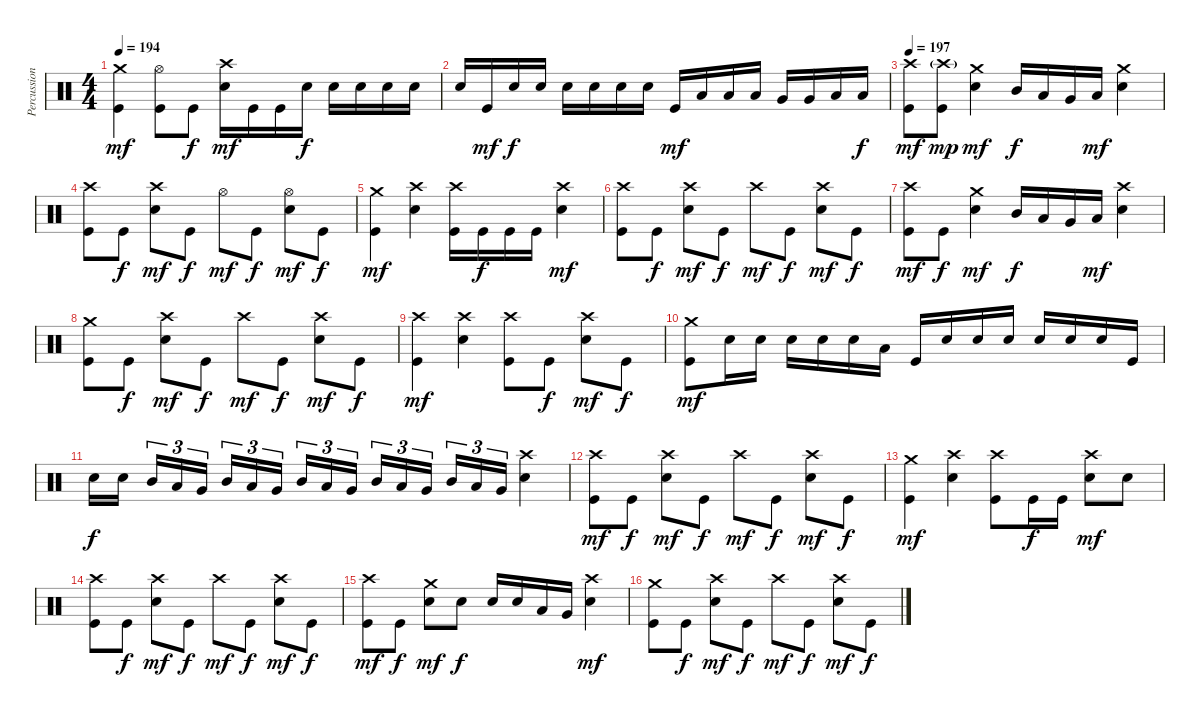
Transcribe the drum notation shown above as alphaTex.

\track ("Percussion" "Percussion") {instrument percussion}
\staff {score}
\articulation defaults
\ts (4 4)
\tempo 194
\clef neutral
\ks c
("Crash medium (hit)" "Kick (hit)").4{dy mf} ("Hi-Hat (open)" "Kick (hit)").8 "Kick (hit)".8{dy f} ("Crash high (hit)" "Electric Snare (hit)").16{dy mf} "Kick (hit)".16 "Kick (hit)".16 "Electric Snare (hit)".16{dy f} "Electric Snare (hit)".16 "Electric Snare (hit)".16 "Electric Snare (hit)".16 "Electric Snare (hit)".16 |
"Electric Snare (hit)".16 "Kick (hit)".16{dy mf} "Electric Snare (hit)".16{dy f} "Electric Snare (hit)".16 "Electric Snare (hit)".16 "Electric Snare (hit)".16 "Electric Snare (hit)".16 "Electric Snare (hit)".16 "Kick (hit)".16{dy mf} "Low Tom (hit)".16 "Low Tom (hit)".16 "Low Tom (hit)".16 "Very Low Tom (hit)".16 "Very Low Tom (hit)".16 "Low Floor Tom (hit)".16 "Low Floor Tom (hit)".16{dy f} |
\tempo 197
("Crash high (hit)" "Kick (hit)").8{dy mf} ("Crash high (hit)"{g} "Kick (hit)").8{dy mp} ("Crash medium (hit)" "Electric Snare (hit)").4{dy mf} "Mid Tom (hit)".16{dy f} "Low Tom (hit)".16 "Very Low Tom (hit)".16 "Low Floor Tom (hit)".16{dy mf} ("Crash medium (hit)" "Electric Snare (hit)").4 |
("Crash high (hit)" "Kick (hit)").8 "Kick (hit)".8{dy f} ("Crash high (hit)" "Electric Snare (hit)").8{dy mf} "Kick (hit)".8{dy f} "Hi-Hat (open)".8{dy mf} "Kick (hit)".8{dy f} ("Hi-Hat (open)" "Electric Snare (hit)").8{dy mf} "Kick (hit)".8{dy f} |
("Crash medium (hit)" "Kick (hit)").4{dy mf} ("Crash high (hit)" "Electric Snare (hit)").4 ("Crash high (hit)" "Kick (hit)").16 "Kick (hit)".16{dy f} "Kick (hit)".16 "Kick (hit)".16 ("Crash high (hit)" "Electric Snare (hit)").4{dy mf} |
("Crash high (hit)" "Kick (hit)").8 "Kick (hit)".8{dy f} ("Crash high (hit)" "Electric Snare (hit)").8{dy mf} "Kick (hit)".8{dy f} "Crash high (hit)".8{dy mf} "Kick (hit)".8{dy f} ("Crash high (hit)" "Electric Snare (hit)").8{dy mf} "Kick (hit)".8{dy f} |
("Crash high (hit)" "Kick (hit)").8{dy mf} "Kick (hit)".8{dy f} ("Crash medium (hit)" "Electric Snare (hit)").4{dy mf} "Mid Tom (hit)".16{dy f} "Low Tom (hit)".16 "Very Low Tom (hit)".16 "Low Floor Tom (hit)".16{dy mf} ("Crash high (hit)" "Electric Snare (hit)").4 |
("Crash medium (hit)" "Kick (hit)").8 "Kick (hit)".8{dy f} ("Crash high (hit)" "Electric Snare (hit)").8{dy mf} "Kick (hit)".8{dy f} "Crash high (hit)".8{dy mf} "Kick (hit)".8{dy f} ("Crash high (hit)" "Electric Snare (hit)").8{dy mf} "Kick (hit)".8{dy f} |
("Crash high (hit)" "Kick (hit)").4{dy mf} ("Crash high (hit)" "Electric Snare (hit)").4 ("Crash high (hit)" "Kick (hit)").8 "Kick (hit)".8{dy f} ("Crash high (hit)" "Electric Snare (hit)").8{dy mf} "Kick (hit)".8{dy f} |
("Crash medium (hit)" "Kick (hit)").8{dy mf} "Electric Snare (hit)".16 "Electric Snare (hit)".16 "Electric Snare (hit)".16 "Electric Snare (hit)".16 "Electric Snare (hit)".16 "Low Tom (hit)".16 "Kick (hit)".16 "Electric Snare (hit)".16 "Electric Snare (hit)".16 "Electric Snare (hit)".16 "Electric Snare (hit)".16 "Electric Snare (hit)".16 "Electric Snare (hit)".16 "Kick (hit)".16 |
"Electric Snare (hit)".16{dy f} "Electric Snare (hit)".16{beam splitsecondary} "Mid Tom (hit)".16{tu (3 2)} "Low Tom (hit)".16{tu (3 2)} "Very Low Tom (hit)".16{tu (3 2)} "Mid Tom (hit)".16{tu (3 2)} "Low Tom (hit)".16{tu (3 2)} "Very Low Tom (hit)".16{tu (3 2) beam splitsecondary} "Mid Tom (hit)".16{tu (3 2)} "Low Tom (hit)".16{tu (3 2)} "Very Low Tom (hit)".16{tu (3 2)} "Mid Tom (hit)".16{tu (3 2)} "Low Tom (hit)".16{tu (3 2)} "Very Low Tom (hit)".16{tu (3 2) beam splitsecondary} "Mid Tom (hit)".16{tu (3 2)} "Low Tom (hit)".16{tu (3 2)} "Very Low Tom (hit)".16{tu (3 2)} ("Crash high (hit)" "Electric Snare (hit)").4 |
("Crash high (hit)" "Kick (hit)").8{dy mf} "Kick (hit)".8{dy f} ("Crash high (hit)" "Electric Snare (hit)").8{dy mf} "Kick (hit)".8{dy f} "Crash high (hit)".8{dy mf} "Kick (hit)".8{dy f} ("Crash high (hit)" "Electric Snare (hit)").8{dy mf} "Kick (hit)".8{dy f} |
("Crash medium (hit)" "Kick (hit)").4{dy mf} ("Crash high (hit)" "Electric Snare (hit)").4 ("Crash high (hit)" "Kick (hit)").8 "Kick (hit)".16{dy f} "Kick (hit)".16 ("Crash high (hit)" "Electric Snare (hit)").8{dy mf} "Electric Snare (hit)".8 |
("Crash high (hit)" "Kick (hit)").8 "Kick (hit)".8{dy f} ("Crash high (hit)" "Electric Snare (hit)").8{dy mf} "Kick (hit)".8{dy f} "Crash high (hit)".8{dy mf} "Kick (hit)".8{dy f} ("Crash high (hit)" "Electric Snare (hit)").8{dy mf} "Kick (hit)".8{dy f} |
("Crash high (hit)" "Kick (hit)").8{dy mf} "Kick (hit)".8{dy f} ("Crash medium (hit)" "Electric Snare (hit)").8{dy mf} "Electric Snare (hit)".8{dy f} "Electric Snare (hit)".16 "Electric Snare (hit)".16 "Low Tom (hit)".16 "Very Low Tom (hit)".16 ("Crash high (hit)" "Electric Snare (hit)").4{dy mf} |
("Crash medium (hit)" "Kick (hit)").8 "Kick (hit)".8{dy f} ("Crash high (hit)" "Electric Snare (hit)").8{dy mf} "Kick (hit)".8{dy f} "Crash high (hit)".8{dy mf} "Kick (hit)".8{dy f} ("Crash high (hit)" "Electric Snare (hit)").8{dy mf} "Kick (hit)".8{dy f}
